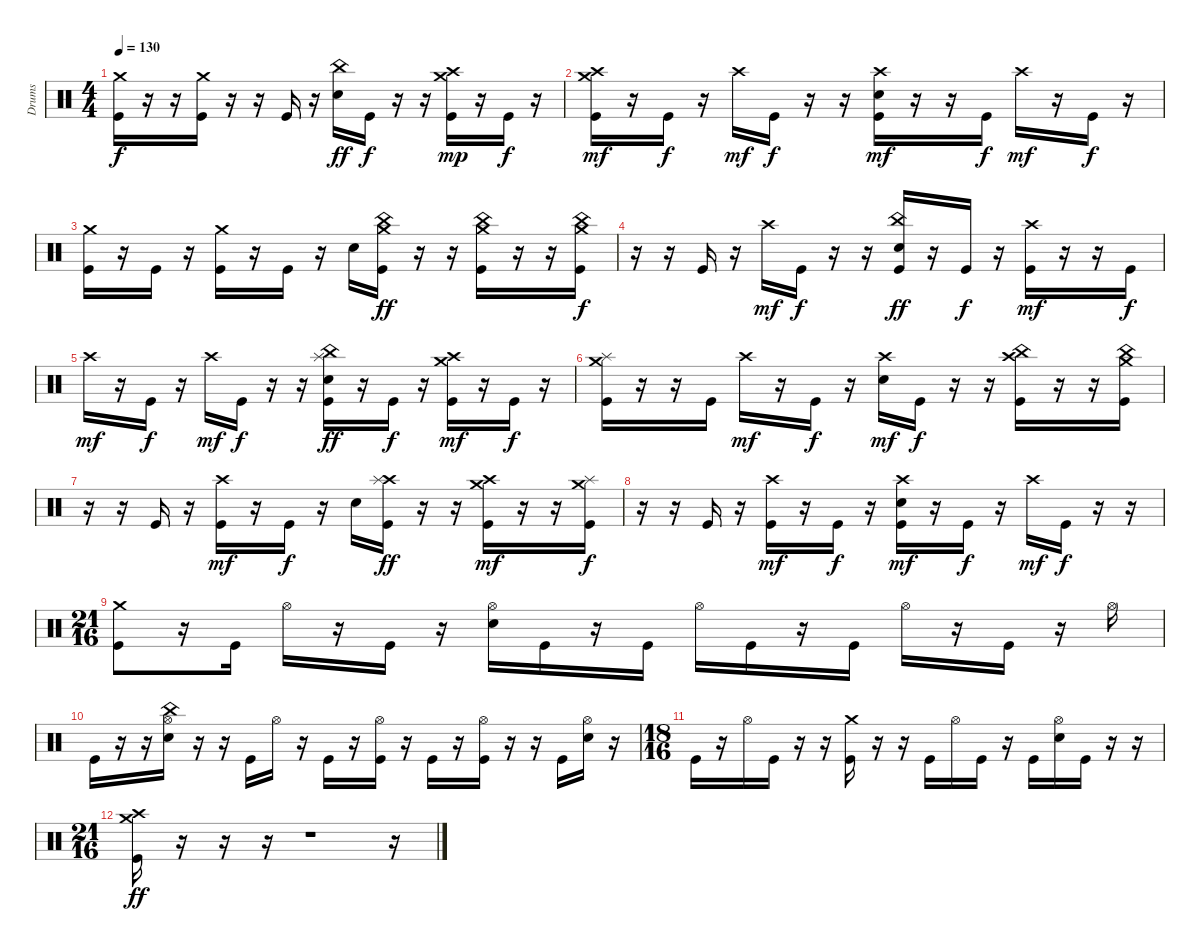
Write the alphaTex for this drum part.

\track ("Drums" "Drums") {instrument percussion}
\staff {score}
\articulation defaults
\ts (4 4)
\tempo 130
\clef neutral
\ks c
("Crash medium (hit)" "Kick (hit)").16{dy f} r.16 r.16 ("Crash medium (hit)" "Kick (hit)").16 r.16 r.16 "Kick (hit)".16 r.16 ("China (hit)" "Electric Snare (hit)").16{dy ff} "Kick (hit)".16{dy f} r.16 r.16 ("Crash medium (hit)" "Crash high (hit)" "Kick (hit)").16{dy mp} r.16 "Kick (hit)".16{dy f} r.16 |
("Crash high (hit)" "Crash medium (hit)" "Kick (hit)").16{dy mf} r.16 "Kick (hit)".16{dy f} r.16 "Crash high (hit)".16{dy mf} "Kick (hit)".16{dy f} r.16 r.16 ("Crash high (hit)" "Electric Snare (hit)" "Kick (hit)").16{dy mf} r.16 r.16 "Kick (hit)".16{dy f} "Crash high (hit)".16{dy mf} r.16 "Kick (hit)".16{dy f} r.16 |
("Crash medium (hit)" "Kick (hit)").16 r.16 "Kick (hit)".16 r.16 ("Crash medium (hit)" "Kick (hit)").16 r.16 "Kick (hit)".16 r.16 "Electric Snare (hit)".16 ("Crash medium (hit)" "China (hit)" "Kick (hit)").16{dy ff} r.16 r.16 ("Crash medium (hit)" "China (hit)" "Kick (hit)").16 r.16 r.16 ("Crash medium (hit)" "China (hit)" "Kick (hit)").16{dy f} |
r.16 r.16 "Kick (hit)".16 r.16 "Crash high (hit)".16{dy mf} "Kick (hit)".16{dy f} r.16 r.16 ("China (hit)" "Electric Snare (hit)" "Kick (hit)").16{dy ff} r.16 "Kick (hit)".16{dy f} r.16 ("Crash high (hit)" "Kick (hit)").16{dy mf} r.16 r.16 "Kick (hit)".16{dy f} |
"Crash high (hit)".16{dy mf} r.16 "Kick (hit)".16{dy f} r.16 "Crash high (hit)".16{dy mf} "Kick (hit)".16{dy f} r.16 r.16 ("Splash (hit)" "China (hit)" "Electric Snare (hit)" "Kick (hit)").16{dy ff} r.16 "Kick (hit)".16{dy f} r.16 ("Crash high (hit)" "Crash medium (hit)" "Kick (hit)").16{dy mf} r.16 "Kick (hit)".16{dy f} r.16 |
("Splash (hit)" "Crash medium (hit)" "Kick (hit)").16 r.16 r.16 "Kick (hit)".16 "Crash high (hit)".16{dy mf} r.16 "Kick (hit)".16{dy f} r.16 ("Crash high (hit)" "Electric Snare (hit)").16{dy mf} "Kick (hit)".16{dy f} r.16 r.16 ("Crash high (hit)" "China (hit)" "Kick (hit)").16 r.16 r.16 ("Crash medium (hit)" "China (hit)" "Kick (hit)").16 |
r.16 r.16 "Kick (hit)".16 r.16 ("Crash high (hit)" "Kick (hit)").16{dy mf} r.16 "Kick (hit)".16{dy f} r.16 "Electric Snare (hit)".16 ("Crash high (hit)" "Splash (hit)" "Kick (hit)").16{dy ff} r.16 r.16 ("Crash high (hit)" "Crash medium (hit)" "Kick (hit)").16{dy mf} r.16 r.16 ("Splash (hit)" "Crash medium (hit)" "Kick (hit)").16{dy f} |
r.16 r.16 "Kick (hit)".16 r.16 ("Crash high (hit)" "Kick (hit)").16{dy mf} r.16 "Kick (hit)".16{dy f} r.16 ("Crash high (hit)" "Electric Snare (hit)" "Kick (hit)").16{dy mf} r.16 "Kick (hit)".16{dy f} r.16 "Crash high (hit)".16{dy mf} "Kick (hit)".16{dy f} r.16 r.16 |
\ts (21 16)
("Crash medium (hit)" "Kick (hit)").8 r.16 "Kick (hit)".16 "Hi-Hat (open)".16 r.16 "Kick (hit)".16 r.16 ("Hi-Hat (open)" "Electric Snare (hit)").16 "Kick (hit)".16 r.16 "Kick (hit)".16 "Hi-Hat (open)".16 "Kick (hit)".16 r.16 "Kick (hit)".16 "Hi-Hat (open)".16 r.16 "Kick (hit)".16 r.16 "Hi-Hat (open)".16 |
"Kick (hit)".16 r.16 r.16 ("Hi-Hat (open)" "China (hit)" "Electric Snare (hit)").16 r.16 r.16 "Kick (hit)".16 "Hi-Hat (open)".16 r.16 "Kick (hit)".16 r.16 ("Hi-Hat (open)" "Kick (hit)").16 r.16 "Kick (hit)".16 r.16 ("Hi-Hat (open)" "Kick (hit)").16 r.16 r.16 "Kick (hit)".16 ("Hi-Hat (open)" "Electric Snare (hit)").16 r.16 |
\ts (18 16)
"Kick (hit)".16 r.16 "Hi-Hat (open)".16 "Kick (hit)".16 r.16 r.16 ("Crash medium (hit)" "Kick (hit)").16 r.16 r.16 "Kick (hit)".16 "Hi-Hat (open)".16 "Kick (hit)".16 r.16 "Kick (hit)".16 ("Hi-Hat (open)" "Electric Snare (hit)").16 "Kick (hit)".16 r.16 r.16 |
\ts (21 16)
("Crash medium (hit)" "Crash high (hit)" "Kick (hit)").16{dy ff} r.16 r.16 r.16 r.1 r.16
